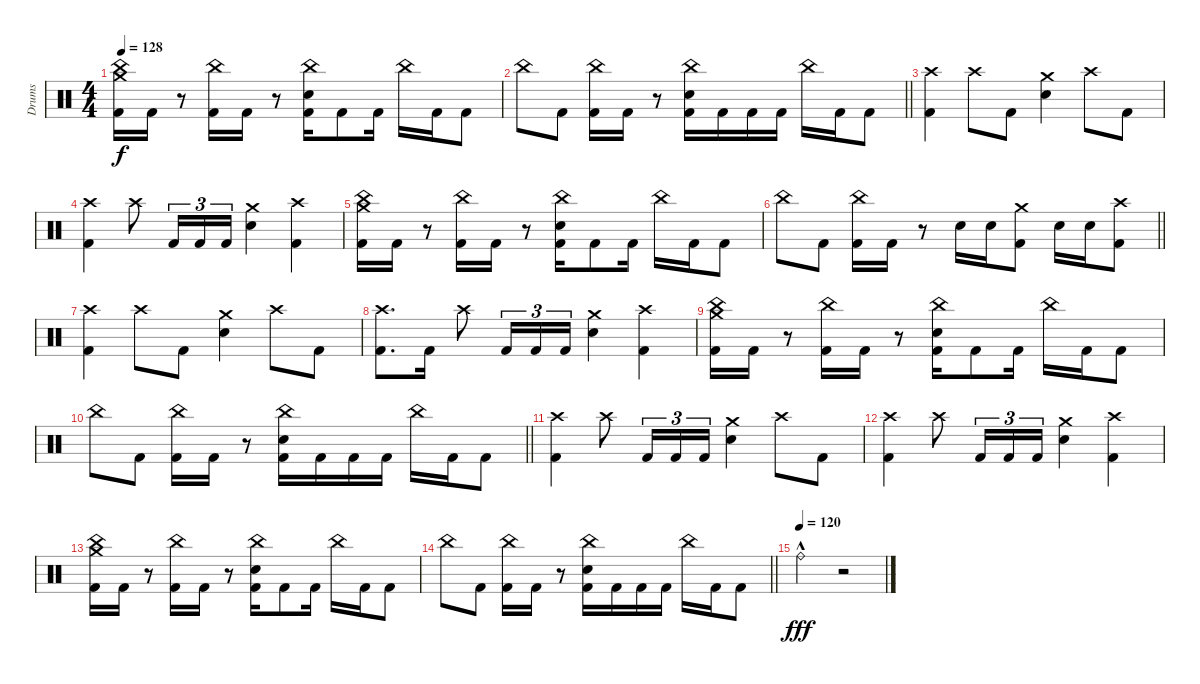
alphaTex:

\track ("Drums" "Drums") {instrument percussion}
\staff {score}
\articulation defaults
\ts (4 4)
\tempo 128
\clef neutral
\ks c
("China (hit)" "Crash medium (hit)" "Kick (hit) 2").16{dy f} "Kick (hit) 2".16 r.8 ("China (hit)" "Kick (hit) 2").16 "Kick (hit) 2".16 r.8 ("China (hit)" "Electric Snare (hit)" "Kick (hit) 2").16 "Kick (hit) 2".8 "Kick (hit) 2".16 "China (hit)".16 "Kick (hit) 2".16 "Kick (hit) 2".8 |
\barLineRight lightlight "China (hit)".8 "Kick (hit) 2".8
("China (hit)" "Kick (hit) 2").16 "Kick (hit) 2".16 r.8 ("China (hit)" "Electric Snare (hit)" "Kick (hit) 2").16 "Kick (hit) 2".16 "Kick (hit) 2".16 "Kick (hit) 2".16 "China (hit)".16 "Kick (hit) 2".16 "Kick (hit) 2".8 |
("Crash high (hit)" "Kick (hit) 2").4 "Crash high (hit)".8 "Kick (hit) 2".8 ("Crash medium (hit)" "Electric Snare (hit)").4 "Crash high (hit)".8 "Kick (hit) 2".8 |
("Crash high (hit)" "Kick (hit) 2").4 "Crash high (hit)".8 "Kick (hit) 2".16{tu (3 2)} "Kick (hit) 2".16{tu (3 2)} "Kick (hit) 2".16{tu (3 2)} ("Crash medium (hit)" "Electric Snare (hit)").4 ("Crash high (hit)" "Kick (hit) 2").4 |
("China (hit)" "Crash medium (hit)" "Kick (hit) 2").16 "Kick (hit) 2".16 r.8 ("China (hit)" "Kick (hit) 2").16 "Kick (hit) 2".16 r.8 ("China (hit)" "Electric Snare (hit)" "Kick (hit) 2").16 "Kick (hit) 2".8 "Kick (hit) 2".16 "China (hit)".16 "Kick (hit) 2".16 "Kick (hit) 2".8 |
\barLineRight lightlight "China (hit)".8 "Kick (hit) 2".8
("China (hit)" "Kick (hit) 2").16 "Kick (hit) 2".16 r.8 "Electric Snare (hit)".16 "Electric Snare (hit)".16 ("Crash medium (hit)" "Kick (hit) 2").8 "Electric Snare (hit)".16 "Electric Snare (hit)".16 ("Crash high (hit)" "Kick (hit) 2").8 |
("Crash high (hit)" "Kick (hit) 2").4 "Crash high (hit)".8 "Kick (hit) 2".8 ("Crash medium (hit)" "Electric Snare (hit)").4 "Crash high (hit)".8 "Kick (hit) 2".8 |
("Crash high (hit)" "Kick (hit) 2").8{d} "Kick (hit) 2".16 "Crash high (hit)".8 "Kick (hit) 2".16{tu (3 2)} "Kick (hit) 2".16{tu (3 2)} "Kick (hit) 2".16{tu (3 2)} ("Crash medium (hit)" "Electric Snare (hit)").4 ("Crash high (hit)" "Kick (hit) 2").4 |
("China (hit)" "Crash medium (hit)" "Kick (hit) 2").16 "Kick (hit) 2".16 r.8 ("China (hit)" "Kick (hit) 2").16 "Kick (hit) 2".16 r.8 ("China (hit)" "Electric Snare (hit)" "Kick (hit) 2").16 "Kick (hit) 2".8 "Kick (hit) 2".16 "China (hit)".16 "Kick (hit) 2".16 "Kick (hit) 2".8 |
\barLineRight lightlight "China (hit)".8 "Kick (hit) 2".8
("China (hit)" "Kick (hit) 2").16 "Kick (hit) 2".16 r.8 ("China (hit)" "Electric Snare (hit)" "Kick (hit) 2").16 "Kick (hit) 2".16 "Kick (hit) 2".16 "Kick (hit) 2".16 "China (hit)".16 "Kick (hit) 2".16 "Kick (hit) 2".8 |
("Crash high (hit)" "Kick (hit) 2").4 "Crash high (hit)".8 "Kick (hit) 2".16{tu (3 2)} "Kick (hit) 2".16{tu (3 2)} "Kick (hit) 2".16{tu (3 2)} ("Crash medium (hit)" "Electric Snare (hit)").4 "Crash high (hit)".8 "Kick (hit) 2".8 |
("Crash high (hit)" "Kick (hit) 2").4 "Crash high (hit)".8 "Kick (hit) 2".16{tu (3 2)} "Kick (hit) 2".16{tu (3 2)} "Kick (hit) 2".16{tu (3 2)} ("Crash medium (hit)" "Electric Snare (hit)").4 ("Crash high (hit)" "Kick (hit) 2").4 |
("China (hit)" "Crash medium (hit)" "Kick (hit) 2").16 "Kick (hit) 2".16 r.8 ("China (hit)" "Kick (hit) 2").16 "Kick (hit) 2".16 r.8 ("China (hit)" "Electric Snare (hit)" "Kick (hit) 2").16 "Kick (hit) 2".8 "Kick (hit) 2".16 "China (hit)".16 "Kick (hit) 2".16 "Kick (hit) 2".8 |
\barLineRight lightlight "China (hit)".8 "Kick (hit) 2".8
("China (hit)" "Kick (hit) 2").16 "Kick (hit) 2".16 r.8 ("China (hit)" "Electric Snare (hit)" "Kick (hit) 2").16 "Kick (hit) 2".16 "Kick (hit) 2".16 "Kick (hit) 2".16 "China (hit)".16 "Kick (hit) 2".16 "Kick (hit) 2".8 |
\tempo (120)
"Ride (bell)"{hac}.2{dy fff} r.2
